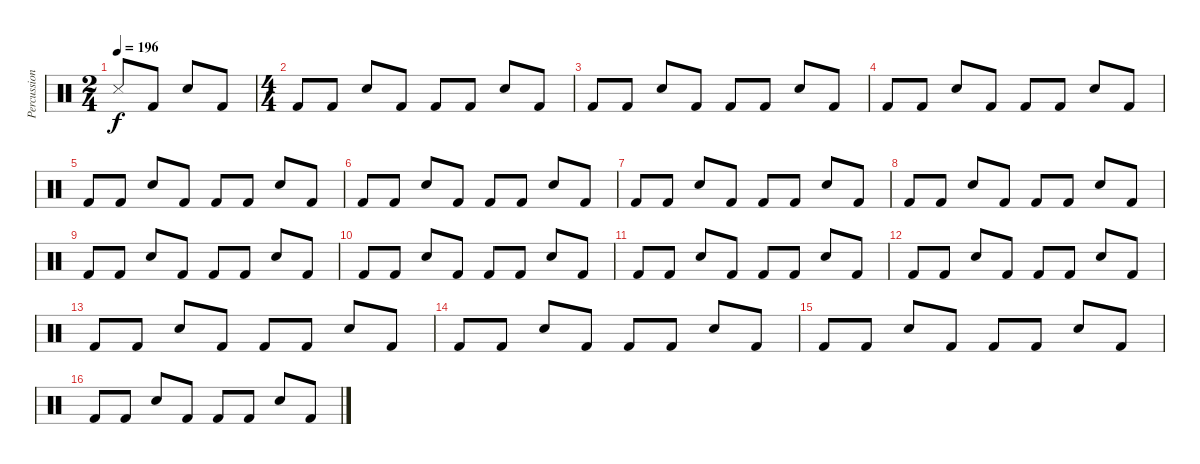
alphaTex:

\track ("Percussion" "Percussion") {instrument percussion}
\staff {score}
\articulation defaults
\ts (2 4)
\tempo 196
\clef neutral
\ks c "Metronome (hit)".8{dy f} "Kick (hit) 2".8 "Electric Snare (hit)".8 "Kick (hit) 2".8
|
\ts (4 4)
"Kick (hit) 2".8 "Kick (hit) 2".8 "Electric Snare (hit)".8 "Kick (hit) 2".8 "Kick (hit) 2".8 "Kick (hit) 2".8 "Electric Snare (hit)".8 "Kick (hit) 2".8 |
"Kick (hit) 2".8 "Kick (hit) 2".8 "Electric Snare (hit)".8 "Kick (hit) 2".8 "Kick (hit) 2".8 "Kick (hit) 2".8 "Electric Snare (hit)".8 "Kick (hit) 2".8 |
"Kick (hit) 2".8 "Kick (hit) 2".8 "Electric Snare (hit)".8 "Kick (hit) 2".8 "Kick (hit) 2".8 "Kick (hit) 2".8 "Electric Snare (hit)".8 "Kick (hit) 2".8 |
"Kick (hit) 2".8 "Kick (hit) 2".8 "Electric Snare (hit)".8 "Kick (hit) 2".8 "Kick (hit) 2".8 "Kick (hit) 2".8 "Electric Snare (hit)".8 "Kick (hit) 2".8 |
"Kick (hit) 2".8 "Kick (hit) 2".8 "Electric Snare (hit)".8 "Kick (hit) 2".8 "Kick (hit) 2".8 "Kick (hit) 2".8 "Electric Snare (hit)".8 "Kick (hit) 2".8 |
"Kick (hit) 2".8 "Kick (hit) 2".8 "Electric Snare (hit)".8 "Kick (hit) 2".8 "Kick (hit) 2".8 "Kick (hit) 2".8 "Electric Snare (hit)".8 "Kick (hit) 2".8 |
"Kick (hit) 2".8 "Kick (hit) 2".8 "Electric Snare (hit)".8 "Kick (hit) 2".8 "Kick (hit) 2".8 "Kick (hit) 2".8 "Electric Snare (hit)".8 "Kick (hit) 2".8 |
"Kick (hit) 2".8 "Kick (hit) 2".8 "Electric Snare (hit)".8 "Kick (hit) 2".8 "Kick (hit) 2".8 "Kick (hit) 2".8 "Electric Snare (hit)".8 "Kick (hit) 2".8 |
"Kick (hit) 2".8 "Kick (hit) 2".8 "Electric Snare (hit)".8 "Kick (hit) 2".8 "Kick (hit) 2".8 "Kick (hit) 2".8 "Electric Snare (hit)".8 "Kick (hit) 2".8 |
"Kick (hit) 2".8 "Kick (hit) 2".8 "Electric Snare (hit)".8 "Kick (hit) 2".8 "Kick (hit) 2".8 "Kick (hit) 2".8 "Electric Snare (hit)".8 "Kick (hit) 2".8 |
"Kick (hit) 2".8 "Kick (hit) 2".8 "Electric Snare (hit)".8 "Kick (hit) 2".8 "Kick (hit) 2".8 "Kick (hit) 2".8 "Electric Snare (hit)".8 "Kick (hit) 2".8 |
"Kick (hit) 2".8 "Kick (hit) 2".8 "Electric Snare (hit)".8 "Kick (hit) 2".8 "Kick (hit) 2".8 "Kick (hit) 2".8 "Electric Snare (hit)".8 "Kick (hit) 2".8 |
"Kick (hit) 2".8 "Kick (hit) 2".8 "Electric Snare (hit)".8 "Kick (hit) 2".8 "Kick (hit) 2".8 "Kick (hit) 2".8 "Electric Snare (hit)".8 "Kick (hit) 2".8 |
"Kick (hit) 2".8 "Kick (hit) 2".8 "Electric Snare (hit)".8 "Kick (hit) 2".8 "Kick (hit) 2".8 "Kick (hit) 2".8 "Electric Snare (hit)".8 "Kick (hit) 2".8 |
"Kick (hit) 2".8 "Kick (hit) 2".8 "Electric Snare (hit)".8 "Kick (hit) 2".8 "Kick (hit) 2".8 "Kick (hit) 2".8 "Electric Snare (hit)".8 "Kick (hit) 2".8
